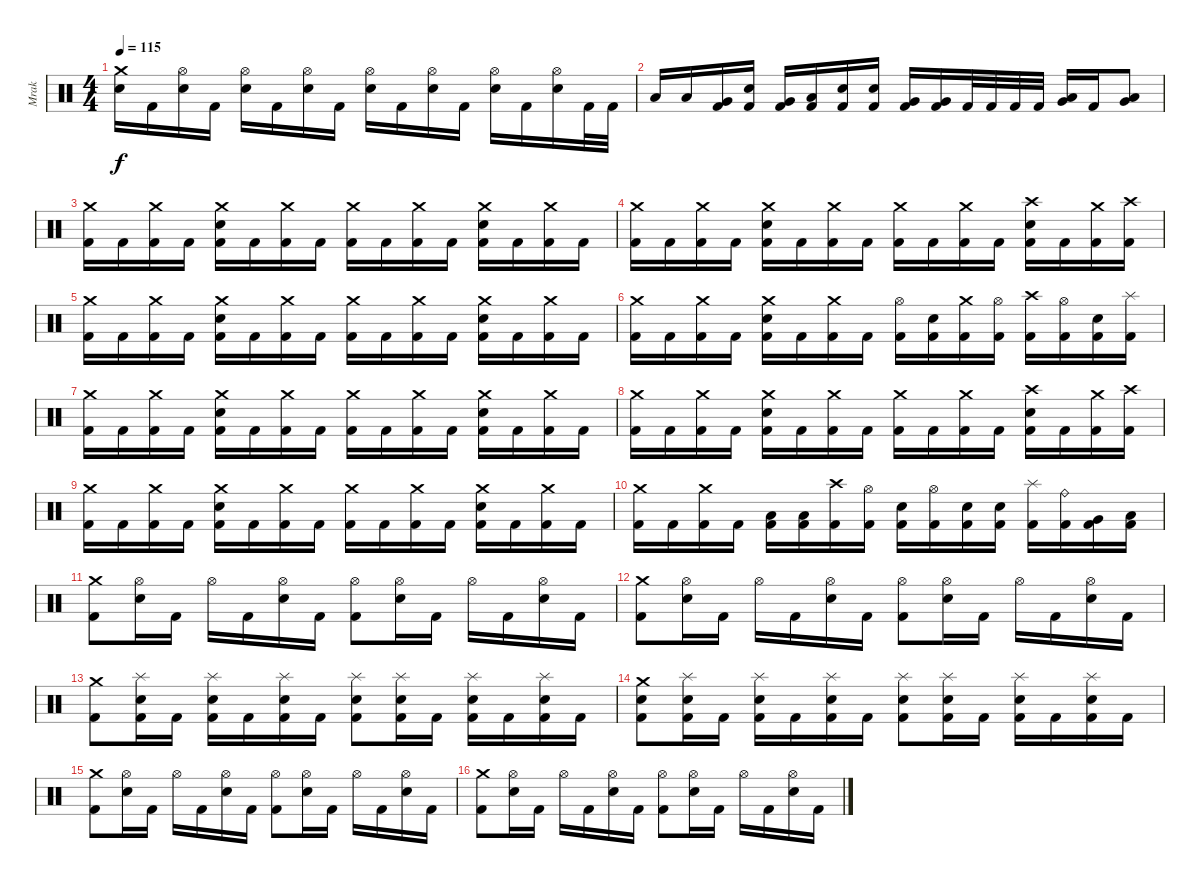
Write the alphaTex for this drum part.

\track ("Mrak" "Mrak") {instrument percussion}
\staff {score}
\articulation defaults
\ts (4 4)
\tempo 115
\clef neutral
\ks c
("Electric Snare (hit)" "Crash medium (hit)").16{dy f} "Kick (hit) 2".16 ("Electric Snare (hit)" "Hi-Hat (open)").16 "Kick (hit) 2".16 ("Electric Snare (hit)" "Hi-Hat (open)").16 "Kick (hit) 2".16 ("Electric Snare (hit)" "Hi-Hat (open)").16 "Kick (hit) 2".16 ("Electric Snare (hit)" "Hi-Hat (open)").16 "Kick (hit) 2".16 ("Electric Snare (hit)" "Hi-Hat (open)").16 "Kick (hit) 2".16 ("Electric Snare (hit)" "Hi-Hat (open)").16 "Kick (hit) 2".16 ("Electric Snare (hit)" "Hi-Hat (open)").16 "Kick (hit) 2".32 "Kick (hit) 2".32 |
"Low Tom (hit)".16 "Low Tom (hit)".16 ("Kick (hit) 2" "Very Low Tom (hit)").16 ("Kick (hit) 2" "Electric Snare (hit)").16 ("Kick (hit) 2" "Very Low Tom (hit)").16 ("Kick (hit) 2" "Low Floor Tom (hit)").16 ("Kick (hit) 2" "Electric Snare (hit)").16 ("Kick (hit) 2" "Electric Snare (hit)").16 ("Kick (hit) 2" "Very Low Tom (hit)").16 ("Kick (hit) 2" "Very Low Tom (hit)").16 "Kick (hit) 2".32 "Kick (hit) 2".32 "Kick (hit) 2".32 "Kick (hit) 2".32 ("Very Low Tom (hit)" "Low Floor Tom (hit)").16 "Kick (hit) 2".16 ("Very Low Tom (hit)" "Low Floor Tom (hit)").8 |
("Kick (hit) 2" "Crash medium (hit)").16 "Kick (hit) 2".16 ("Kick (hit) 2" "Crash medium (hit)").16 "Kick (hit) 2".16 ("Kick (hit) 2" "Crash medium (hit)" "Electric Snare (hit)").16 "Kick (hit) 2".16 ("Kick (hit) 2" "Crash medium (hit)").16 "Kick (hit) 2".16 ("Kick (hit) 2" "Crash medium (hit)").16 "Kick (hit) 2".16 ("Kick (hit) 2" "Crash medium (hit)").16 "Kick (hit) 2".16 ("Kick (hit) 2" "Crash medium (hit)" "Electric Snare (hit)").16 "Kick (hit) 2".16 ("Kick (hit) 2" "Crash medium (hit)").16 "Kick (hit) 2".16 |
("Kick (hit) 2" "Crash medium (hit)").16 "Kick (hit) 2".16 ("Kick (hit) 2" "Crash medium (hit)").16 "Kick (hit) 2".16 ("Kick (hit) 2" "Crash medium (hit)" "Electric Snare (hit)").16 "Kick (hit) 2".16 ("Kick (hit) 2" "Crash medium (hit)").16 "Kick (hit) 2".16 ("Kick (hit) 2" "Crash medium (hit)").16 "Kick (hit) 2".16 ("Kick (hit) 2" "Crash medium (hit)").16 "Kick (hit) 2".16 ("Kick (hit) 2" "Electric Snare (hit)" "Crash high (hit)").16 "Kick (hit) 2".16 ("Kick (hit) 2" "Crash medium (hit)").16 ("Kick (hit) 2" "Crash high (hit)").16 |
("Kick (hit) 2" "Crash medium (hit)").16 "Kick (hit) 2".16 ("Kick (hit) 2" "Crash medium (hit)").16 "Kick (hit) 2".16 ("Kick (hit) 2" "Crash medium (hit)" "Electric Snare (hit)").16 "Kick (hit) 2".16 ("Kick (hit) 2" "Crash medium (hit)").16 "Kick (hit) 2".16 ("Kick (hit) 2" "Crash medium (hit)").16 "Kick (hit) 2".16 ("Kick (hit) 2" "Crash medium (hit)").16 "Kick (hit) 2".16 ("Kick (hit) 2" "Crash medium (hit)" "Electric Snare (hit)").16 "Kick (hit) 2".16 ("Kick (hit) 2" "Crash medium (hit)").16 "Kick (hit) 2".16 |
("Kick (hit) 2" "Crash medium (hit)").16 "Kick (hit) 2".16 ("Kick (hit) 2" "Crash medium (hit)").16 "Kick (hit) 2".16 ("Kick (hit) 2" "Crash medium (hit)" "Electric Snare (hit)").16 "Kick (hit) 2".16 ("Kick (hit) 2" "Crash medium (hit)").16 "Kick (hit) 2".16 ("Kick (hit) 2" "Hi-Hat (open)").16 ("Kick (hit) 2" "Electric Snare (hit)").16 ("Kick (hit) 2" "Crash medium (hit)").16 ("Kick (hit) 2" "Hi-Hat (open)").16 ("Kick (hit) 2" "Crash high (hit)").16 ("Kick (hit) 2" "Hi-Hat (open)").16 ("Kick (hit) 2" "Electric Snare (hit)").16 ("Kick (hit) 2" "Splash (hit)").16 |
("Kick (hit) 2" "Crash medium (hit)").16 "Kick (hit) 2".16 ("Kick (hit) 2" "Crash medium (hit)").16 "Kick (hit) 2".16 ("Kick (hit) 2" "Crash medium (hit)" "Electric Snare (hit)").16 "Kick (hit) 2".16 ("Kick (hit) 2" "Crash medium (hit)").16 "Kick (hit) 2".16 ("Kick (hit) 2" "Crash medium (hit)").16 "Kick (hit) 2".16 ("Kick (hit) 2" "Crash medium (hit)").16 "Kick (hit) 2".16 ("Kick (hit) 2" "Crash medium (hit)" "Electric Snare (hit)").16 "Kick (hit) 2".16 ("Kick (hit) 2" "Crash medium (hit)").16 "Kick (hit) 2".16 |
("Kick (hit) 2" "Crash medium (hit)").16 "Kick (hit) 2".16 ("Kick (hit) 2" "Crash medium (hit)").16 "Kick (hit) 2".16 ("Kick (hit) 2" "Crash medium (hit)" "Electric Snare (hit)").16 "Kick (hit) 2".16 ("Kick (hit) 2" "Crash medium (hit)").16 "Kick (hit) 2".16 ("Kick (hit) 2" "Crash medium (hit)").16 "Kick (hit) 2".16 ("Kick (hit) 2" "Crash medium (hit)").16 "Kick (hit) 2".16 ("Kick (hit) 2" "Electric Snare (hit)" "Crash high (hit)").16 "Kick (hit) 2".16 ("Kick (hit) 2" "Crash medium (hit)").16 ("Kick (hit) 2" "Crash high (hit)").16 |
("Kick (hit) 2" "Crash medium (hit)").16 "Kick (hit) 2".16 ("Kick (hit) 2" "Crash medium (hit)").16 "Kick (hit) 2".16 ("Kick (hit) 2" "Crash medium (hit)" "Electric Snare (hit)").16 "Kick (hit) 2".16 ("Kick (hit) 2" "Crash medium (hit)").16 "Kick (hit) 2".16 ("Kick (hit) 2" "Crash medium (hit)").16 "Kick (hit) 2".16 ("Kick (hit) 2" "Crash medium (hit)").16 "Kick (hit) 2".16 ("Kick (hit) 2" "Crash medium (hit)" "Electric Snare (hit)").16 "Kick (hit) 2".16 ("Kick (hit) 2" "Crash medium (hit)").16 "Kick (hit) 2".16 |
("Kick (hit) 2" "Crash medium (hit)").16 "Kick (hit) 2".16 ("Kick (hit) 2" "Crash medium (hit)").16 "Kick (hit) 2".16 ("Kick (hit) 2" "Low Tom (hit)").16 ("Kick (hit) 2" "Low Tom (hit)").16 ("Kick (hit) 2" "Crash high (hit)").16 ("Kick (hit) 2" "Hi-Hat (open)").16 ("Kick (hit) 2" "Electric Snare (hit)").16 ("Kick (hit) 2" "Hi-Hat (open)").16 ("Kick (hit) 2" "Electric Snare (hit)").16 ("Kick (hit) 2" "Electric Snare (hit)").16 ("Kick (hit) 2" "Splash (hit)").16 ("Kick (hit) 2" "Ride (bell)").16 ("Kick (hit) 2" "Very Low Tom (hit)").16 ("Kick (hit) 2" "Low Tom (hit)").16 |
("Crash medium (hit)" "Kick (hit) 2").8 ("Hi-Hat (open)" "Electric Snare (hit)").16 "Kick (hit) 2".16 "Hi-Hat (open)".16 "Kick (hit) 2".16 ("Hi-Hat (open)" "Electric Snare (hit)").16 "Kick (hit) 2".16 ("Hi-Hat (open)" "Kick (hit) 2").8 ("Hi-Hat (open)" "Electric Snare (hit)").16 "Kick (hit) 2".16 "Hi-Hat (open)".16 "Kick (hit) 2".16 ("Hi-Hat (open)" "Electric Snare (hit)").16 "Kick (hit) 2".16 |
("Crash medium (hit)" "Kick (hit) 2").8 ("Hi-Hat (open)" "Electric Snare (hit)").16 "Kick (hit) 2".16 "Hi-Hat (open)".16 "Kick (hit) 2".16 ("Hi-Hat (open)" "Electric Snare (hit)").16 "Kick (hit) 2".16 ("Hi-Hat (open)" "Kick (hit) 2").8 ("Hi-Hat (open)" "Electric Snare (hit)").16 "Kick (hit) 2".16 "Hi-Hat (open)".16 "Kick (hit) 2".16 ("Hi-Hat (open)" "Electric Snare (hit)").16 "Kick (hit) 2".16 |
("Crash medium (hit)" "Kick (hit) 2").8 ("Kick (hit) 2" "Electric Snare (hit)" "Splash (hit)").16 "Kick (hit) 2".16 ("Kick (hit) 2" "Electric Snare (hit)" "Splash (hit)").16 "Kick (hit) 2".16 ("Kick (hit) 2" "Electric Snare (hit)" "Splash (hit)").16 "Kick (hit) 2".16 ("Kick (hit) 2" "Electric Snare (hit)" "Splash (hit)").8 ("Kick (hit) 2" "Electric Snare (hit)" "Splash (hit)").16 "Kick (hit) 2".16 ("Kick (hit) 2" "Electric Snare (hit)" "Splash (hit)").16 "Kick (hit) 2".16 ("Kick (hit) 2" "Electric Snare (hit)" "Splash (hit)").16 "Kick (hit) 2".16 |
("Crash medium (hit)" "Electric Snare (hit)" "Kick (hit) 2").8 ("Kick (hit) 2" "Electric Snare (hit)" "Splash (hit)").16 "Kick (hit) 2".16 ("Kick (hit) 2" "Electric Snare (hit)" "Splash (hit)").16 "Kick (hit) 2".16 ("Kick (hit) 2" "Electric Snare (hit)" "Splash (hit)").16 "Kick (hit) 2".16 ("Kick (hit) 2" "Electric Snare (hit)" "Splash (hit)").8 ("Kick (hit) 2" "Electric Snare (hit)" "Splash (hit)").16 "Kick (hit) 2".16 ("Kick (hit) 2" "Electric Snare (hit)" "Splash (hit)").16 "Kick (hit) 2".16 ("Kick (hit) 2" "Electric Snare (hit)" "Splash (hit)").16 "Kick (hit) 2".16 |
("Crash medium (hit)" "Kick (hit) 2").8 ("Hi-Hat (open)" "Electric Snare (hit)").16 "Kick (hit) 2".16 "Hi-Hat (open)".16 "Kick (hit) 2".16 ("Hi-Hat (open)" "Electric Snare (hit)").16 "Kick (hit) 2".16 ("Hi-Hat (open)" "Kick (hit) 2").8 ("Hi-Hat (open)" "Electric Snare (hit)").16 "Kick (hit) 2".16 "Hi-Hat (open)".16 "Kick (hit) 2".16 ("Hi-Hat (open)" "Electric Snare (hit)").16 "Kick (hit) 2".16 |
("Crash medium (hit)" "Kick (hit) 2").8 ("Hi-Hat (open)" "Electric Snare (hit)").16 "Kick (hit) 2".16 "Hi-Hat (open)".16 "Kick (hit) 2".16 ("Hi-Hat (open)" "Electric Snare (hit)").16 "Kick (hit) 2".16 ("Hi-Hat (open)" "Kick (hit) 2").8 ("Hi-Hat (open)" "Electric Snare (hit)").16 "Kick (hit) 2".16 "Hi-Hat (open)".16 "Kick (hit) 2".16 ("Hi-Hat (open)" "Electric Snare (hit)").16 "Kick (hit) 2".16
